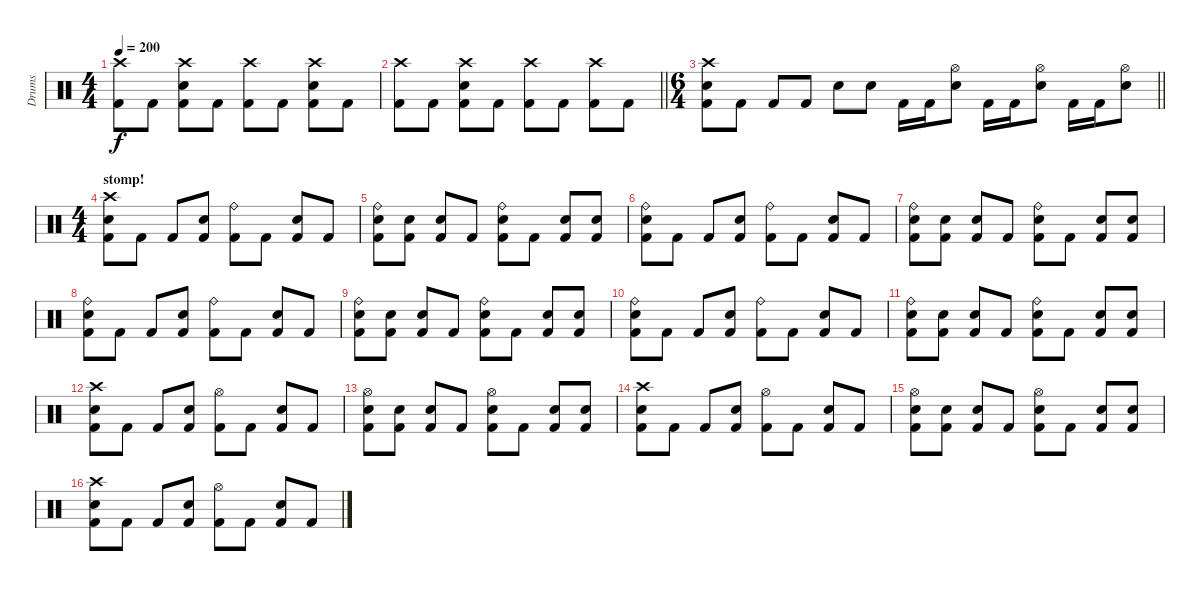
\track ("Drums" "Drums") {instrument percussion}
\staff {score}
\articulation defaults
\ts (4 4)
\tempo 200
\clef neutral
\ks c
("Crash high (hit)" "Kick (hit) 2").8{dy f} "Kick (hit) 2".8 ("Crash high (hit)" "Snare (hit) 2" "Kick (hit) 2").8 "Kick (hit) 2".8 ("Crash high (hit)" "Kick (hit) 2").8 "Kick (hit) 2".8 ("Crash high (hit)" "Snare (hit) 2" "Kick (hit) 2").8 "Kick (hit) 2".8 |
\barLineRight lightlight
("Crash high (hit)" "Kick (hit) 2").8 "Kick (hit) 2".8 ("Crash high (hit)" "Snare (hit) 2" "Kick (hit) 2").8 "Kick (hit) 2".8 ("Crash high (hit)" "Kick (hit) 2").8 "Kick (hit) 2".8 ("Crash high (hit)" "Kick (hit) 2").8 "Kick (hit) 2".8 |
\ts (6 4)
\barLineRight lightlight
("Crash high (hit)" "Snare (hit) 2" "Kick (hit) 2").8 "Kick (hit) 2".8 "Kick (hit) 2".8 "Kick (hit) 2".8 "Snare (hit) 2".8 "Snare (hit) 2".8 "Kick (hit) 2".16 "Kick (hit) 2".16 ("Hi-Hat (open)" "Snare (hit) 2").8 "Kick (hit) 2".16 "Kick (hit) 2".16 ("Hi-Hat (open)" "Snare (hit) 2").8 "Kick (hit) 2".16 "Kick (hit) 2".16 ("Hi-Hat (open)" "Snare (hit) 2").8 |
\ts (4 4)
\section ("" "stomp!")
("Crash high (hit)" "Snare (hit) 2" "Kick (hit) 2").8 "Kick (hit) 2".8 "Kick (hit) 2".8 ("Snare (hit) 2" "Kick (hit) 2").8 ("Ride (bell)" "Kick (hit) 2").8 "Kick (hit) 2".8 ("Snare (hit) 2" "Kick (hit) 2").8 "Kick (hit) 2".8 |
("Ride (bell)" "Snare (hit) 2" "Kick (hit) 2").8 ("Snare (hit) 2" "Kick (hit) 2").8 ("Snare (hit) 2" "Kick (hit) 2").8 "Kick (hit) 2".8 ("Ride (bell)" "Snare (hit) 2" "Kick (hit) 2").8 "Kick (hit) 2".8 ("Snare (hit) 2" "Kick (hit) 2").8 ("Snare (hit) 2" "Kick (hit) 2").8 |
("Ride (bell)" "Snare (hit) 2" "Kick (hit) 2").8 "Kick (hit) 2".8 "Kick (hit) 2".8 ("Snare (hit) 2" "Kick (hit) 2").8 ("Ride (bell)" "Kick (hit) 2").8 "Kick (hit) 2".8 ("Snare (hit) 2" "Kick (hit) 2").8 "Kick (hit) 2".8 |
("Ride (bell)" "Snare (hit) 2" "Kick (hit) 2").8 ("Snare (hit) 2" "Kick (hit) 2").8 ("Snare (hit) 2" "Kick (hit) 2").8 "Kick (hit) 2".8 ("Ride (bell)" "Snare (hit) 2" "Kick (hit) 2").8 "Kick (hit) 2".8 ("Snare (hit) 2" "Kick (hit) 2").8 ("Snare (hit) 2" "Kick (hit) 2").8 |
("Ride (bell)" "Snare (hit) 2" "Kick (hit) 2").8 "Kick (hit) 2".8 "Kick (hit) 2".8 ("Snare (hit) 2" "Kick (hit) 2").8 ("Ride (bell)" "Kick (hit) 2").8 "Kick (hit) 2".8 ("Snare (hit) 2" "Kick (hit) 2").8 "Kick (hit) 2".8 |
("Ride (bell)" "Snare (hit) 2" "Kick (hit) 2").8 ("Snare (hit) 2" "Kick (hit) 2").8 ("Snare (hit) 2" "Kick (hit) 2").8 "Kick (hit) 2".8 ("Ride (bell)" "Snare (hit) 2" "Kick (hit) 2").8 "Kick (hit) 2".8 ("Snare (hit) 2" "Kick (hit) 2").8 ("Snare (hit) 2" "Kick (hit) 2").8 |
("Ride (bell)" "Snare (hit) 2" "Kick (hit) 2").8 "Kick (hit) 2".8 "Kick (hit) 2".8 ("Snare (hit) 2" "Kick (hit) 2").8 ("Ride (bell)" "Kick (hit) 2").8 "Kick (hit) 2".8 ("Snare (hit) 2" "Kick (hit) 2").8 "Kick (hit) 2".8 |
("Ride (bell)" "Snare (hit) 2" "Kick (hit) 2").8 ("Snare (hit) 2" "Kick (hit) 2").8 ("Snare (hit) 2" "Kick (hit) 2").8 "Kick (hit) 2".8 ("Ride (bell)" "Snare (hit) 2" "Kick (hit) 2").8 "Kick (hit) 2".8 ("Snare (hit) 2" "Kick (hit) 2").8 ("Snare (hit) 2" "Kick (hit) 2").8 |
("Crash high (hit)" "Snare (hit) 2" "Kick (hit) 2").8 "Kick (hit) 2".8 "Kick (hit) 2".8 ("Snare (hit) 2" "Kick (hit) 2").8 ("Hi-Hat (open)" "Kick (hit) 2").8 "Kick (hit) 2".8 ("Snare (hit) 2" "Kick (hit) 2").8 "Kick (hit) 2".8 |
("Hi-Hat (open)" "Snare (hit) 2" "Kick (hit) 2").8 ("Snare (hit) 2" "Kick (hit) 2").8 ("Snare (hit) 2" "Kick (hit) 2").8 "Kick (hit) 2".8 ("Hi-Hat (open)" "Snare (hit) 2" "Kick (hit) 2").8 "Kick (hit) 2".8 ("Snare (hit) 2" "Kick (hit) 2").8 ("Snare (hit) 2" "Kick (hit) 2").8 |
("Crash high (hit)" "Snare (hit) 2" "Kick (hit) 2").8 "Kick (hit) 2".8 "Kick (hit) 2".8 ("Snare (hit) 2" "Kick (hit) 2").8 ("Hi-Hat (open)" "Kick (hit) 2").8 "Kick (hit) 2".8 ("Snare (hit) 2" "Kick (hit) 2").8 "Kick (hit) 2".8 |
("Hi-Hat (open)" "Snare (hit) 2" "Kick (hit) 2").8 ("Snare (hit) 2" "Kick (hit) 2").8 ("Snare (hit) 2" "Kick (hit) 2").8 "Kick (hit) 2".8 ("Hi-Hat (open)" "Snare (hit) 2" "Kick (hit) 2").8 "Kick (hit) 2".8 ("Snare (hit) 2" "Kick (hit) 2").8 ("Snare (hit) 2" "Kick (hit) 2").8 |
("Crash high (hit)" "Snare (hit) 2" "Kick (hit) 2").8 "Kick (hit) 2".8 "Kick (hit) 2".8 ("Snare (hit) 2" "Kick (hit) 2").8 ("Hi-Hat (open)" "Kick (hit) 2").8 "Kick (hit) 2".8 ("Snare (hit) 2" "Kick (hit) 2").8 "Kick (hit) 2".8
